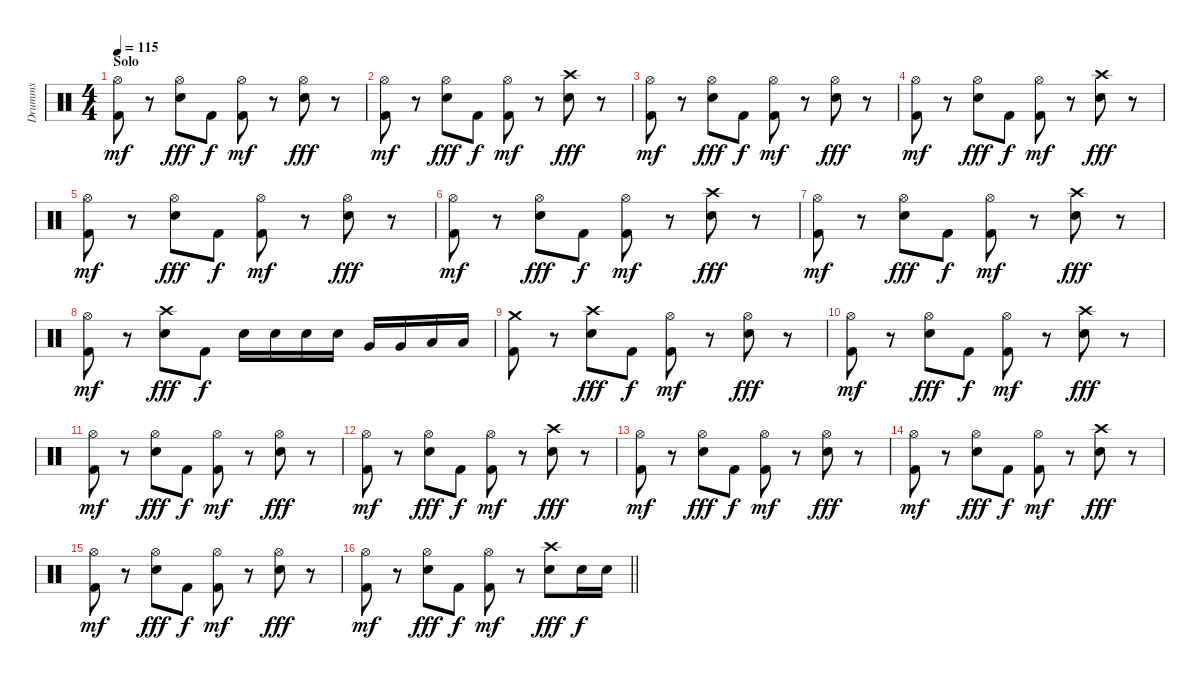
\track ("Drumms" "Drumms") {instrument percussion}
\staff {score}
\articulation defaults
\ts (4 4)
\section ("" "Solo")
\tempo 115
\clef neutral
\ks c
("Hi-Hat (open)" "Kick (hit) 2").8{dy mf} r.8 ("Hi-Hat (open)" "Snare (hit) 2").8{dy fff} "Kick (hit) 2".8{dy f} ("Hi-Hat (open)" "Kick (hit) 2").8{dy mf} r.8 ("Hi-Hat (open)" "Snare (hit) 2").8{dy fff} r.8 |
("Hi-Hat (open)" "Kick (hit) 2").8{dy mf} r.8 ("Hi-Hat (open)" "Snare (hit) 2").8{dy fff} "Kick (hit) 2".8{dy f} ("Hi-Hat (open)" "Kick (hit) 2").8{dy mf} r.8 ("Crash high (hit)" "Snare (hit) 2").8{dy fff} r.8 |
("Hi-Hat (open)" "Kick (hit) 2").8{dy mf} r.8 ("Hi-Hat (open)" "Snare (hit) 2").8{dy fff} "Kick (hit) 2".8{dy f} ("Hi-Hat (open)" "Kick (hit) 2").8{dy mf} r.8 ("Hi-Hat (open)" "Snare (hit) 2").8{dy fff} r.8 |
("Hi-Hat (open)" "Kick (hit) 2").8{dy mf} r.8 ("Hi-Hat (open)" "Snare (hit) 2").8{dy fff} "Kick (hit) 2".8{dy f} ("Hi-Hat (open)" "Kick (hit) 2").8{dy mf} r.8 ("Crash high (hit)" "Snare (hit) 2").8{dy fff} r.8 |
("Hi-Hat (open)" "Kick (hit) 2").8{dy mf} r.8 ("Hi-Hat (open)" "Snare (hit) 2").8{dy fff} "Kick (hit) 2".8{dy f} ("Hi-Hat (open)" "Kick (hit) 2").8{dy mf} r.8 ("Hi-Hat (open)" "Snare (hit) 2").8{dy fff} r.8 |
("Hi-Hat (open)" "Kick (hit) 2").8{dy mf} r.8 ("Hi-Hat (open)" "Snare (hit) 2").8{dy fff} "Kick (hit) 2".8{dy f} ("Hi-Hat (open)" "Kick (hit) 2").8{dy mf} r.8 ("Crash high (hit)" "Snare (hit) 2").8{dy fff} r.8 |
("Hi-Hat (open)" "Kick (hit) 2").8{dy mf} r.8 ("Hi-Hat (open)" "Snare (hit) 2").8{dy fff} "Kick (hit) 2".8{dy f} ("Hi-Hat (open)" "Kick (hit) 2").8{dy mf} r.8 ("Crash high (hit)" "Snare (hit) 2").8{dy fff} r.8 |
("Hi-Hat (open)" "Kick (hit) 2").8{dy mf} r.8 ("Crash high (hit)" "Snare (hit) 2").8{dy fff} "Kick (hit) 2".8{dy f} "Electric Snare (hit)".16 "Electric Snare (hit)".16 "Electric Snare (hit)".16 "Electric Snare (hit)".16 "Very Low Tom (hit)".16 "Very Low Tom (hit)".16 "Low Tom (hit)".16 "Low Tom (hit)".16 |
("Crash medium (hit)" "Kick (hit) 2").8 r.8 ("Crash high (hit)" "Snare (hit) 2").8{dy fff} "Kick (hit) 2".8{dy f} ("Hi-Hat (open)" "Kick (hit) 2").8{dy mf} r.8 ("Hi-Hat (open)" "Snare (hit) 2").8{dy fff} r.8 |
("Hi-Hat (open)" "Kick (hit) 2").8{dy mf} r.8 ("Hi-Hat (open)" "Snare (hit) 2").8{dy fff} "Kick (hit) 2".8{dy f} ("Hi-Hat (open)" "Kick (hit) 2").8{dy mf} r.8 ("Crash high (hit)" "Snare (hit) 2").8{dy fff} r.8 |
("Hi-Hat (open)" "Kick (hit) 2").8{dy mf} r.8 ("Hi-Hat (open)" "Snare (hit) 2").8{dy fff} "Kick (hit) 2".8{dy f} ("Hi-Hat (open)" "Kick (hit) 2").8{dy mf} r.8 ("Hi-Hat (open)" "Snare (hit) 2").8{dy fff} r.8 |
("Hi-Hat (open)" "Kick (hit) 2").8{dy mf} r.8 ("Hi-Hat (open)" "Snare (hit) 2").8{dy fff} "Kick (hit) 2".8{dy f} ("Hi-Hat (open)" "Kick (hit) 2").8{dy mf} r.8 ("Crash high (hit)" "Snare (hit) 2").8{dy fff} r.8 |
("Hi-Hat (open)" "Kick (hit) 2").8{dy mf} r.8 ("Hi-Hat (open)" "Snare (hit) 2").8{dy fff} "Kick (hit) 2".8{dy f} ("Hi-Hat (open)" "Kick (hit) 2").8{dy mf} r.8 ("Hi-Hat (open)" "Snare (hit) 2").8{dy fff} r.8 |
("Hi-Hat (open)" "Kick (hit) 2").8{dy mf} r.8 ("Hi-Hat (open)" "Snare (hit) 2").8{dy fff} "Kick (hit) 2".8{dy f} ("Hi-Hat (open)" "Kick (hit) 2").8{dy mf} r.8 ("Crash high (hit)" "Snare (hit) 2").8{dy fff} r.8 |
("Hi-Hat (open)" "Kick (hit) 2").8{dy mf} r.8 ("Hi-Hat (open)" "Snare (hit) 2").8{dy fff} "Kick (hit) 2".8{dy f} ("Hi-Hat (open)" "Kick (hit) 2").8{dy mf} r.8 ("Hi-Hat (open)" "Snare (hit) 2").8{dy fff} r.8 |
\barLineRight lightlight
("Hi-Hat (open)" "Kick (hit) 2").8{dy mf} r.8 ("Hi-Hat (open)" "Snare (hit) 2").8{dy fff} "Kick (hit) 2".8{dy f} ("Hi-Hat (open)" "Kick (hit) 2").8{dy mf} r.8 ("Crash high (hit)" "Snare (hit) 2").8{dy fff} "Electric Snare (hit)".16{dy f} "Electric Snare (hit)".16
